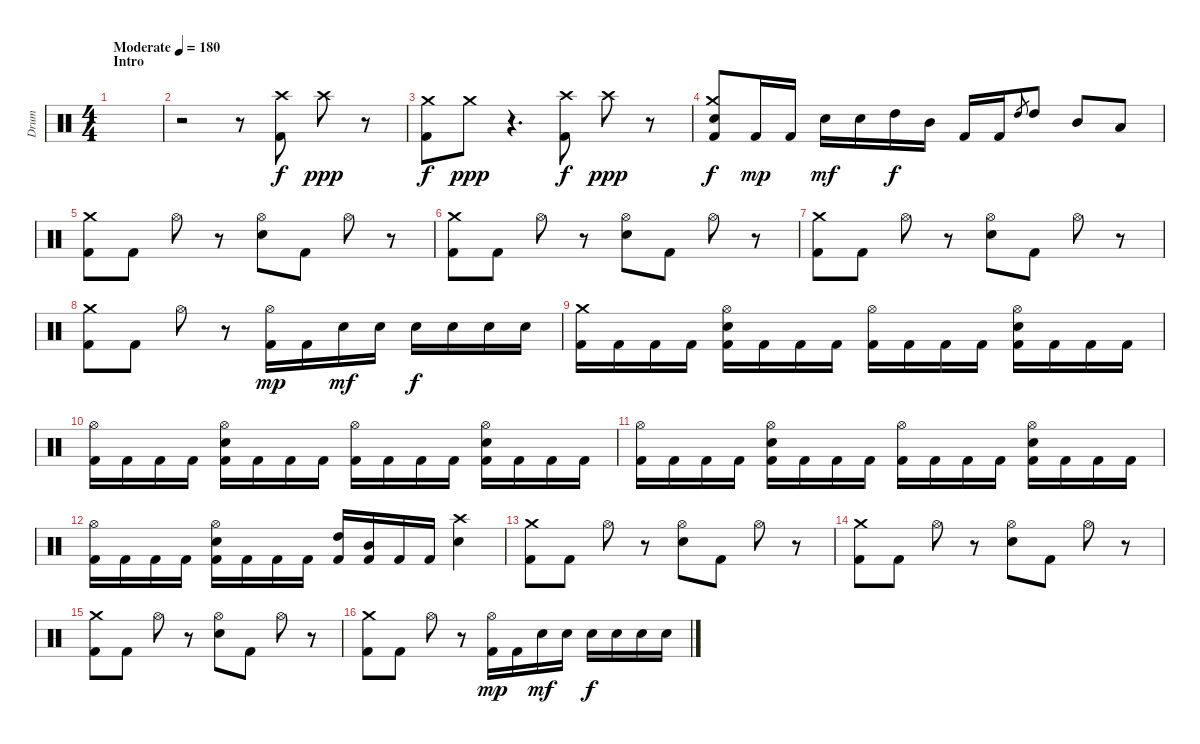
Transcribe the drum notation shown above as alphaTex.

\track ("Drum" "Drum") {instrument percussion}
\staff {score}
\articulation defaults
\ts (4 4)
\section ("" "Intro")
\tempo (180 "Moderate")
\clef neutral
\ks c
|
r.2 r.8 ("Crash high (hit)" "Kick (hit) 2").8 "Crash high (hit)".8{dy ppp} r.8 |
("Crash medium (hit)" "Kick (hit) 2").8{dy f} "Crash medium (hit)".8{dy ppp} r.4{d} ("Crash high (hit)" "Kick (hit) 2").8{dy f} "Crash high (hit)".8{dy ppp} r.8 |
("Crash medium (hit)" "Electric Snare (hit)" "Kick (hit) 2").8{dy f} "Kick (hit) 2".16{dy mp} "Kick (hit) 2".16 "Electric Snare (hit)".16{dy mf} "Electric Snare (hit)".16 "High Tom (hit)".16{dy f} "Mid Tom (hit)".16 "Kick (hit) 2".16 "Kick (hit) 2".16 "High Tom (hit)".8{gr} "High Tom (hit)".8 "Mid Tom (hit)".8 "Low Tom (hit)".8 |
("Crash medium (hit)" "Kick (hit) 2").8 "Kick (hit) 2".8 "Hi-Hat (open)".8 r.8 ("Hi-Hat (open)" "Electric Snare (hit)").8 "Kick (hit) 2".8 "Hi-Hat (open)".8 r.8 |
("Crash medium (hit)" "Kick (hit) 2").8 "Kick (hit) 2".8 "Hi-Hat (open)".8 r.8 ("Hi-Hat (open)" "Electric Snare (hit)").8 "Kick (hit) 2".8 "Hi-Hat (open)".8 r.8 |
("Crash medium (hit)" "Kick (hit) 2").8 "Kick (hit) 2".8 "Hi-Hat (open)".8 r.8 ("Hi-Hat (open)" "Electric Snare (hit)").8 "Kick (hit) 2".8 "Hi-Hat (open)".8 r.8 |
("Crash medium (hit)" "Kick (hit) 2").8 "Kick (hit) 2".8 "Hi-Hat (open)".8 r.8 ("Hi-Hat (open)" "Kick (hit) 2").16{dy mp} "Kick (hit) 2".16 "Electric Snare (hit)".16{dy mf} "Electric Snare (hit)".16 "Electric Snare (hit)".16{dy f} "Electric Snare (hit)".16 "Electric Snare (hit)".16 "Electric Snare (hit)".16 |
("Crash medium (hit)" "Kick (hit) 2").16 "Kick (hit) 2".16 "Kick (hit) 2".16 "Kick (hit) 2".16 ("Hi-Hat (open)" "Electric Snare (hit)" "Kick (hit) 2").16 "Kick (hit) 2".16 "Kick (hit) 2".16 "Kick (hit) 2".16 ("Hi-Hat (open)" "Kick (hit) 2").16 "Kick (hit) 2".16 "Kick (hit) 2".16 "Kick (hit) 2".16 ("Hi-Hat (open)" "Electric Snare (hit)" "Kick (hit) 2").16 "Kick (hit) 2".16 "Kick (hit) 2".16 "Kick (hit) 2".16 |
("Hi-Hat (open)" "Kick (hit) 2").16 "Kick (hit) 2".16 "Kick (hit) 2".16 "Kick (hit) 2".16 ("Hi-Hat (open)" "Electric Snare (hit)" "Kick (hit) 2").16 "Kick (hit) 2".16 "Kick (hit) 2".16 "Kick (hit) 2".16 ("Hi-Hat (open)" "Kick (hit) 2").16 "Kick (hit) 2".16 "Kick (hit) 2".16 "Kick (hit) 2".16 ("Hi-Hat (open)" "Electric Snare (hit)" "Kick (hit) 2").16 "Kick (hit) 2".16 "Kick (hit) 2".16 "Kick (hit) 2".16 |
("Hi-Hat (open)" "Kick (hit) 2").16 "Kick (hit) 2".16 "Kick (hit) 2".16 "Kick (hit) 2".16 ("Hi-Hat (open)" "Electric Snare (hit)" "Kick (hit) 2").16 "Kick (hit) 2".16 "Kick (hit) 2".16 "Kick (hit) 2".16 ("Hi-Hat (open)" "Kick (hit) 2").16 "Kick (hit) 2".16 "Kick (hit) 2".16 "Kick (hit) 2".16 ("Hi-Hat (open)" "Electric Snare (hit)" "Kick (hit) 2").16 "Kick (hit) 2".16 "Kick (hit) 2".16 "Kick (hit) 2".16 |
("Hi-Hat (open)" "Kick (hit) 2").16 "Kick (hit) 2".16 "Kick (hit) 2".16 "Kick (hit) 2".16 ("Hi-Hat (open)" "Electric Snare (hit)" "Kick (hit) 2").16 "Kick (hit) 2".16 "Kick (hit) 2".16 "Kick (hit) 2".16 ("High Tom (hit)" "Kick (hit) 2").16 ("Mid Tom (hit)" "Kick (hit) 2").16 "Kick (hit) 2".16 "Kick (hit) 2".16 ("Crash high (hit)" "Electric Snare (hit)").4 |
("Crash medium (hit)" "Kick (hit) 2").8 "Kick (hit) 2".8 "Hi-Hat (open)".8 r.8 ("Hi-Hat (open)" "Electric Snare (hit)").8 "Kick (hit) 2".8 "Hi-Hat (open)".8 r.8 |
("Crash medium (hit)" "Kick (hit) 2").8 "Kick (hit) 2".8 "Hi-Hat (open)".8 r.8 ("Hi-Hat (open)" "Electric Snare (hit)").8 "Kick (hit) 2".8 "Hi-Hat (open)".8 r.8 |
("Crash medium (hit)" "Kick (hit) 2").8 "Kick (hit) 2".8 "Hi-Hat (open)".8 r.8 ("Hi-Hat (open)" "Electric Snare (hit)").8 "Kick (hit) 2".8 "Hi-Hat (open)".8 r.8 |
("Crash medium (hit)" "Kick (hit) 2").8 "Kick (hit) 2".8 "Hi-Hat (open)".8 r.8 ("Hi-Hat (open)" "Kick (hit) 2").16{dy mp} "Kick (hit) 2".16 "Electric Snare (hit)".16{dy mf} "Electric Snare (hit)".16 "Electric Snare (hit)".16{dy f} "Electric Snare (hit)".16 "Electric Snare (hit)".16 "Electric Snare (hit)".16
